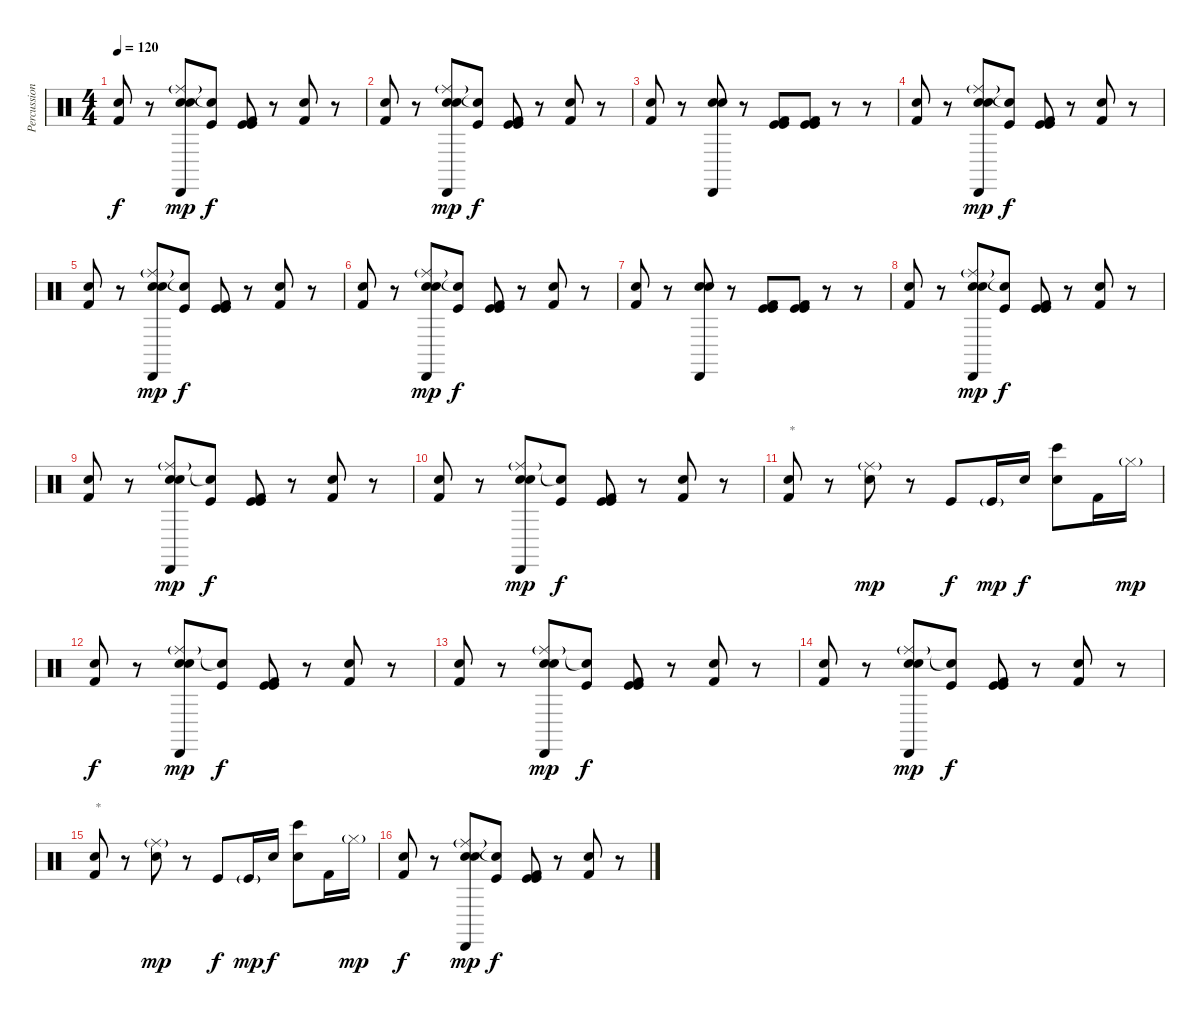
\track ("Percussion" "Percussion") {instrument percussion}
\staff {score}
\articulation defaults
\ts (4 4)
\tempo 120
\clef neutral
\ks c
("Kick (hit) 2" "Snare (hit) 2").8{dy f} r.8 ("Ride (middle)"{g} "Snare (hit) 2" "Cabasa (hit)" "Snare (hit) 2").8{dy mp} ("Snare (hit)"{t} "Kick (hit)").8{dy f} ("Kick (hit)" "Kick (hit)" "Kick (hit) 2").8 r.8 ("Kick (hit) 2" "Snare (hit) 2").8 r.8 |
("Kick (hit) 2" "Snare (hit) 2").8 r.8 ("Ride (middle)"{g} "Snare (hit) 2" "Cabasa (hit)" "Snare (hit) 2").8{dy mp} ("Snare (hit)"{t} "Kick (hit)").8{dy f} ("Kick (hit)" "Kick (hit)" "Kick (hit) 2").8 r.8 ("Kick (hit) 2" "Snare (hit) 2").8 r.8 |
("Kick (hit) 2" "Snare (hit) 2").8 r.8 ("Snare (hit) 2" "Cabasa (hit)" "Snare (hit) 2").8 r.8 ("Kick (hit)" "Kick (hit)" "Kick (hit) 2").8 ("Kick (hit)" "Kick (hit)" "Kick (hit) 2").8 r.8 r.8 |
("Kick (hit) 2" "Snare (hit) 2").8 r.8 ("Ride (middle)"{g} "Snare (hit) 2" "Cabasa (hit)" "Snare (hit) 2").8{dy mp} ("Snare (hit)"{t} "Kick (hit)").8{dy f} ("Kick (hit)" "Kick (hit)" "Kick (hit) 2").8 r.8 ("Kick (hit) 2" "Snare (hit) 2").8 r.8 |
("Kick (hit) 2" "Snare (hit) 2").8 r.8 ("Ride (middle)"{g} "Snare (hit) 2" "Cabasa (hit)" "Snare (hit) 2").8{dy mp} ("Snare (hit)"{t} "Kick (hit)").8{dy f} ("Kick (hit)" "Kick (hit)" "Kick (hit) 2").8 r.8 ("Kick (hit) 2" "Snare (hit) 2").8 r.8 |
("Kick (hit) 2" "Snare (hit) 2").8 r.8 ("Ride (middle)"{g} "Snare (hit) 2" "Cabasa (hit)" "Snare (hit) 2").8{dy mp} ("Snare (hit)"{t} "Kick (hit)").8{dy f} ("Kick (hit)" "Kick (hit)" "Kick (hit) 2").8 r.8 ("Kick (hit) 2" "Snare (hit) 2").8 r.8 |
("Kick (hit) 2" "Snare (hit) 2").8 r.8 ("Snare (hit) 2" "Cabasa (hit)" "Snare (hit) 2").8 r.8 ("Kick (hit)" "Kick (hit)" "Kick (hit) 2").8 ("Kick (hit)" "Kick (hit)" "Kick (hit) 2").8 r.8 r.8 |
("Kick (hit) 2" "Snare (hit) 2").8 r.8 ("Ride (middle)"{g} "Snare (hit) 2" "Cabasa (hit)" "Snare (hit) 2").8{dy mp} ("Snare (hit)"{t} "Kick (hit)").8{dy f} ("Kick (hit)" "Kick (hit)" "Kick (hit) 2").8 r.8 ("Kick (hit) 2" "Snare (hit) 2").8 r.8 |
("Kick (hit) 2" "Snare (hit) 2").8 r.8 ("Ride (middle)"{g} "Snare (hit) 2" "Cabasa (hit)" "Snare (hit) 2").8{dy mp} ("Snare (hit)"{t} "Kick (hit)").8{dy f} ("Kick (hit)" "Kick (hit)" "Kick (hit) 2").8 r.8 ("Kick (hit) 2" "Snare (hit) 2").8 r.8 |
("Kick (hit) 2" "Snare (hit) 2").8 r.8 ("Ride (middle)"{g} "Snare (hit) 2" "Cabasa (hit)" "Snare (hit) 2").8{dy mp} ("Snare (hit)"{t} "Kick (hit)").8{dy f} ("Kick (hit)" "Kick (hit)" "Kick (hit) 2").8 r.8 ("Kick (hit) 2" "Snare (hit) 2").8 r.8 |
("Kick (hit) 2" "Snare (hit) 2").8{txt "*"} r.8 ("Ride (middle)"{g} "Snare (hit) 2").8{dy mp} r.8 "Kick (hit)".8{dy f} "Kick (hit)"{g}.16{dy mp} "Electric Snare (hit)".16{dy f} ("Bongo High (hit)" "Snare (hit) 2").8 "Kick (hit) 2".16 "Hi-Hat (closed)"{g}.16{dy mp} |
("Kick (hit) 2" "Snare (hit) 2").8{dy f} r.8 ("Ride (middle)"{g} "Snare (hit) 2" "Cabasa (hit)" "Snare (hit) 2").8{dy mp} ("Snare (hit)"{t} "Kick (hit)").8{dy f} ("Kick (hit)" "Kick (hit)" "Kick (hit) 2").8 r.8 ("Kick (hit) 2" "Snare (hit) 2").8 r.8 |
("Kick (hit) 2" "Snare (hit) 2").8 r.8 ("Ride (middle)"{g} "Snare (hit) 2" "Cabasa (hit)" "Snare (hit) 2").8{dy mp} ("Snare (hit)"{t} "Kick (hit)").8{dy f} ("Kick (hit)" "Kick (hit)" "Kick (hit) 2").8 r.8 ("Kick (hit) 2" "Snare (hit) 2").8 r.8 |
("Kick (hit) 2" "Snare (hit) 2").8 r.8 ("Ride (middle)"{g} "Snare (hit) 2" "Cabasa (hit)" "Snare (hit) 2").8{dy mp} ("Snare (hit)"{t} "Kick (hit)").8{dy f} ("Kick (hit)" "Kick (hit)" "Kick (hit) 2").8 r.8 ("Kick (hit) 2" "Snare (hit) 2").8 r.8 |
("Kick (hit) 2" "Snare (hit) 2").8{txt "*"} r.8 ("Ride (middle)"{g} "Snare (hit) 2").8{dy mp} r.8 "Kick (hit)".8{dy f} "Kick (hit)"{g}.16{dy mp} "Electric Snare (hit)".16{dy f} ("Bongo High (hit)" "Snare (hit) 2").8 "Kick (hit) 2".16 "Hi-Hat (closed)"{g}.16{dy mp} |
("Kick (hit) 2" "Snare (hit) 2").8{dy f} r.8 ("Ride (middle)"{g} "Snare (hit) 2" "Cabasa (hit)" "Snare (hit) 2").8{dy mp} ("Snare (hit)"{t} "Kick (hit)").8{dy f} ("Kick (hit)" "Kick (hit)" "Kick (hit) 2").8 r.8 ("Kick (hit) 2" "Snare (hit) 2").8 r.8
